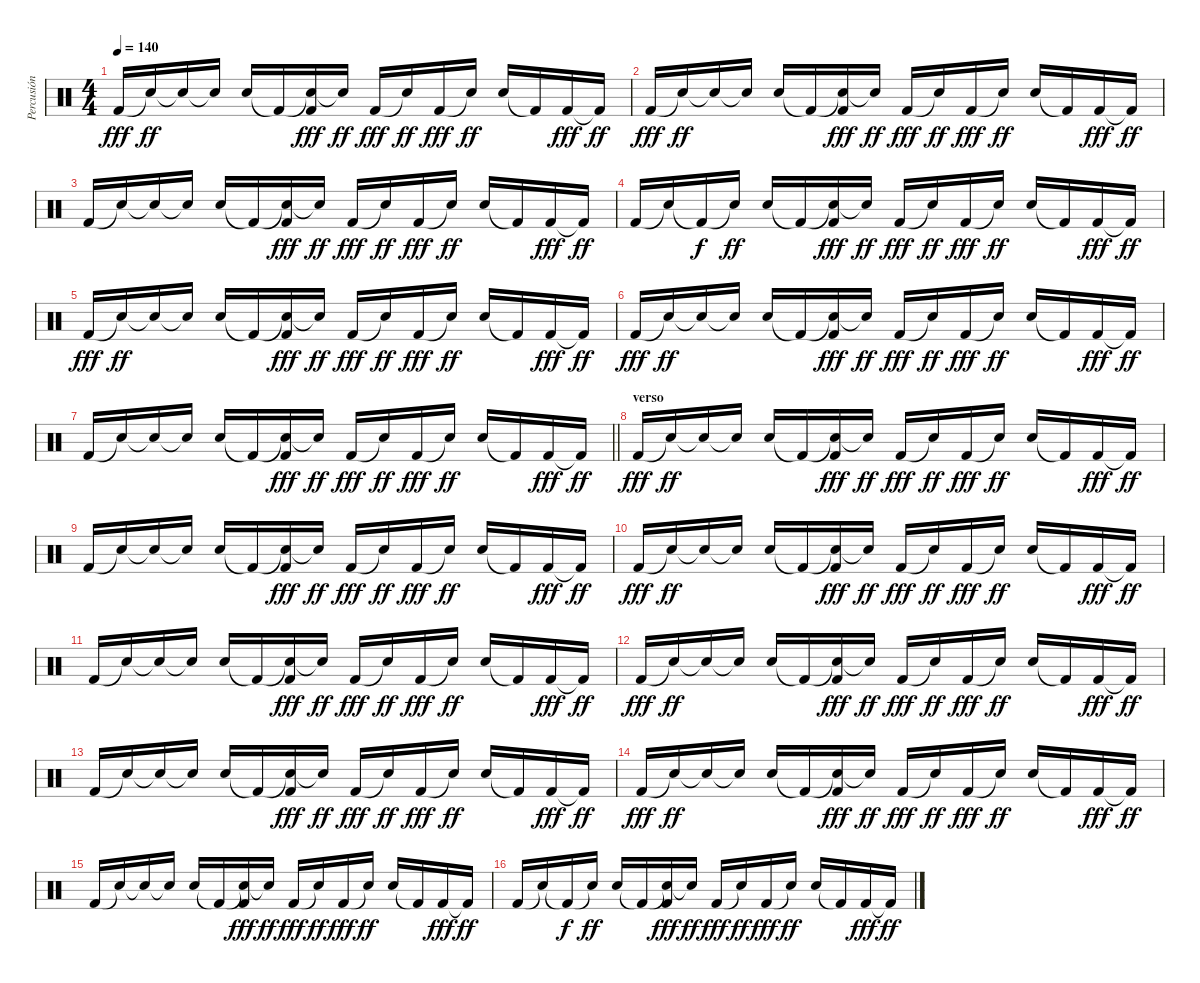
\track ("Percusión" "Percusión") {instrument percussion}
\staff {score}
\articulation defaults
\ts (4 4)
\tempo 140
\clef neutral
\ks c "Kick (hit) 2".16{dy fff} "Snare (hit)"{t}.16{dy ff} "Electric Snare (hit)"{t}.16 "Snare (hit)"{t}.16 "Electric Snare (hit)".16 "Kick (hit) 2"{t}.16
("Electric Snare (hit)"{t} "Kick (hit) 2").16{dy fff} "Snare (hit)"{t}.16{dy ff} "Kick (hit) 2".16{dy fff} "Snare (hit)"{t}.16{dy ff} "Kick (hit) 2".16{dy fff} "Snare (hit)"{t}.16{dy ff} "Electric Snare (hit)".16 "Kick (hit) 2"{t}.16 "Kick (hit) 2".16{dy fff} "Kick (hit) 2"{t}.16{dy ff} |
"Kick (hit) 2".16{dy fff} "Snare (hit)"{t}.16{dy ff} "Electric Snare (hit)"{t}.16 "Snare (hit)"{t}.16 "Electric Snare (hit)".16 "Kick (hit) 2"{t}.16 ("Electric Snare (hit)"{t} "Kick (hit) 2").16{dy fff} "Snare (hit)"{t}.16{dy ff} "Kick (hit) 2".16{dy fff} "Snare (hit)"{t}.16{dy ff} "Kick (hit) 2".16{dy fff} "Snare (hit)"{t}.16{dy ff} "Electric Snare (hit)".16 "Kick (hit) 2"{t}.16 "Kick (hit) 2".16{dy fff} "Kick (hit) 2"{t}.16{dy ff} |
"Kick (hit) 2".16 "Snare (hit)"{t}.16 "Electric Snare (hit)"{t}.16 "Snare (hit)"{t}.16 "Electric Snare (hit)".16 "Kick (hit) 2"{t}.16 ("Electric Snare (hit)"{t} "Kick (hit) 2").16{dy fff} "Snare (hit)"{t}.16{dy ff} "Kick (hit) 2".16{dy fff} "Snare (hit)"{t}.16{dy ff} "Kick (hit) 2".16{dy fff} "Snare (hit)"{t}.16{dy ff} "Electric Snare (hit)".16 "Kick (hit) 2"{t}.16 "Kick (hit) 2".16{dy fff} "Kick (hit) 2"{t}.16{dy ff} |
"Kick (hit) 2".16 "Snare (hit)"{t}.16 "Kick (hit) 2"{t}.16{dy f} "Snare (hit)"{t}.16{dy ff} "Electric Snare (hit)".16 "Kick (hit) 2"{t}.16 ("Electric Snare (hit)"{t} "Kick (hit) 2").16{dy fff} "Snare (hit)"{t}.16{dy ff} "Kick (hit) 2".16{dy fff} "Snare (hit)"{t}.16{dy ff} "Kick (hit) 2".16{dy fff} "Snare (hit)"{t}.16{dy ff} "Electric Snare (hit)".16 "Kick (hit) 2"{t}.16 "Kick (hit) 2".16{dy fff} "Kick (hit) 2"{t}.16{dy ff} |
"Kick (hit) 2".16{dy fff} "Snare (hit)"{t}.16{dy ff} "Electric Snare (hit)"{t}.16 "Snare (hit)"{t}.16 "Electric Snare (hit)".16 "Kick (hit) 2"{t}.16 ("Electric Snare (hit)"{t} "Kick (hit) 2").16{dy fff} "Snare (hit)"{t}.16{dy ff} "Kick (hit) 2".16{dy fff} "Snare (hit)"{t}.16{dy ff} "Kick (hit) 2".16{dy fff} "Snare (hit)"{t}.16{dy ff} "Electric Snare (hit)".16 "Kick (hit) 2"{t}.16 "Kick (hit) 2".16{dy fff} "Kick (hit) 2"{t}.16{dy ff} |
"Kick (hit) 2".16{dy fff} "Snare (hit)"{t}.16{dy ff} "Electric Snare (hit)"{t}.16 "Snare (hit)"{t}.16 "Electric Snare (hit)".16 "Kick (hit) 2"{t}.16 ("Electric Snare (hit)"{t} "Kick (hit) 2").16{dy fff} "Snare (hit)"{t}.16{dy ff} "Kick (hit) 2".16{dy fff} "Snare (hit)"{t}.16{dy ff} "Kick (hit) 2".16{dy fff} "Snare (hit)"{t}.16{dy ff} "Electric Snare (hit)".16 "Kick (hit) 2"{t}.16 "Kick (hit) 2".16{dy fff} "Kick (hit) 2"{t}.16{dy ff} |
\barLineRight lightlight "Kick (hit) 2".16 "Snare (hit)"{t}.16 "Electric Snare (hit)"{t}.16 "Snare (hit)"{t}.16 "Electric Snare (hit)".16 "Kick (hit) 2"{t}.16
("Electric Snare (hit)"{t} "Kick (hit) 2").16{dy fff} "Snare (hit)"{t}.16{dy ff} "Kick (hit) 2".16{dy fff} "Snare (hit)"{t}.16{dy ff} "Kick (hit) 2".16{dy fff} "Snare (hit)"{t}.16{dy ff} "Electric Snare (hit)".16 "Kick (hit) 2"{t}.16 "Kick (hit) 2".16{dy fff} "Kick (hit) 2"{t}.16{dy ff} |
\section ("" "verso")
"Kick (hit) 2".16{dy fff} "Snare (hit)"{t}.16{dy ff} "Electric Snare (hit)"{t}.16 "Snare (hit)"{t}.16 "Electric Snare (hit)".16 "Kick (hit) 2"{t}.16 ("Electric Snare (hit)"{t} "Kick (hit) 2").16{dy fff} "Snare (hit)"{t}.16{dy ff} "Kick (hit) 2".16{dy fff} "Snare (hit)"{t}.16{dy ff} "Kick (hit) 2".16{dy fff} "Snare (hit)"{t}.16{dy ff} "Electric Snare (hit)".16 "Kick (hit) 2"{t}.16 "Kick (hit) 2".16{dy fff} "Kick (hit) 2"{t}.16{dy ff} |
"Kick (hit) 2".16 "Snare (hit)"{t}.16 "Electric Snare (hit)"{t}.16 "Snare (hit)"{t}.16 "Electric Snare (hit)".16 "Kick (hit) 2"{t}.16 ("Electric Snare (hit)"{t} "Kick (hit) 2").16{dy fff} "Snare (hit)"{t}.16{dy ff} "Kick (hit) 2".16{dy fff} "Snare (hit)"{t}.16{dy ff} "Kick (hit) 2".16{dy fff} "Snare (hit)"{t}.16{dy ff} "Electric Snare (hit)".16 "Kick (hit) 2"{t}.16 "Kick (hit) 2".16{dy fff} "Kick (hit) 2"{t}.16{dy ff} |
"Kick (hit) 2".16{dy fff} "Snare (hit)"{t}.16{dy ff} "Electric Snare (hit)"{t}.16 "Snare (hit)"{t}.16 "Electric Snare (hit)".16 "Kick (hit) 2"{t}.16 ("Electric Snare (hit)"{t} "Kick (hit) 2").16{dy fff} "Snare (hit)"{t}.16{dy ff} "Kick (hit) 2".16{dy fff} "Snare (hit)"{t}.16{dy ff} "Kick (hit) 2".16{dy fff} "Snare (hit)"{t}.16{dy ff} "Electric Snare (hit)".16 "Kick (hit) 2"{t}.16 "Kick (hit) 2".16{dy fff} "Kick (hit) 2"{t}.16{dy ff} |
"Kick (hit) 2".16 "Snare (hit)"{t}.16 "Electric Snare (hit)"{t}.16 "Snare (hit)"{t}.16 "Electric Snare (hit)".16 "Kick (hit) 2"{t}.16 ("Electric Snare (hit)"{t} "Kick (hit) 2").16{dy fff} "Snare (hit)"{t}.16{dy ff} "Kick (hit) 2".16{dy fff} "Snare (hit)"{t}.16{dy ff} "Kick (hit) 2".16{dy fff} "Snare (hit)"{t}.16{dy ff} "Electric Snare (hit)".16 "Kick (hit) 2"{t}.16 "Kick (hit) 2".16{dy fff} "Kick (hit) 2"{t}.16{dy ff} |
"Kick (hit) 2".16{dy fff} "Snare (hit)"{t}.16{dy ff} "Electric Snare (hit)"{t}.16 "Snare (hit)"{t}.16 "Electric Snare (hit)".16 "Kick (hit) 2"{t}.16 ("Electric Snare (hit)"{t} "Kick (hit) 2").16{dy fff} "Snare (hit)"{t}.16{dy ff} "Kick (hit) 2".16{dy fff} "Snare (hit)"{t}.16{dy ff} "Kick (hit) 2".16{dy fff} "Snare (hit)"{t}.16{dy ff} "Electric Snare (hit)".16 "Kick (hit) 2"{t}.16 "Kick (hit) 2".16{dy fff} "Kick (hit) 2"{t}.16{dy ff} |
"Kick (hit) 2".16 "Snare (hit)"{t}.16 "Electric Snare (hit)"{t}.16 "Snare (hit)"{t}.16 "Electric Snare (hit)".16 "Kick (hit) 2"{t}.16 ("Electric Snare (hit)"{t} "Kick (hit) 2").16{dy fff} "Snare (hit)"{t}.16{dy ff} "Kick (hit) 2".16{dy fff} "Snare (hit)"{t}.16{dy ff} "Kick (hit) 2".16{dy fff} "Snare (hit)"{t}.16{dy ff} "Electric Snare (hit)".16 "Kick (hit) 2"{t}.16 "Kick (hit) 2".16{dy fff} "Kick (hit) 2"{t}.16{dy ff} |
"Kick (hit) 2".16{dy fff} "Snare (hit)"{t}.16{dy ff} "Electric Snare (hit)"{t}.16 "Snare (hit)"{t}.16 "Electric Snare (hit)".16 "Kick (hit) 2"{t}.16 ("Electric Snare (hit)"{t} "Kick (hit) 2").16{dy fff} "Snare (hit)"{t}.16{dy ff} "Kick (hit) 2".16{dy fff} "Snare (hit)"{t}.16{dy ff} "Kick (hit) 2".16{dy fff} "Snare (hit)"{t}.16{dy ff} "Electric Snare (hit)".16 "Kick (hit) 2"{t}.16 "Kick (hit) 2".16{dy fff} "Kick (hit) 2"{t}.16{dy ff} |
"Kick (hit) 2".16 "Snare (hit)"{t}.16 "Electric Snare (hit)"{t}.16 "Snare (hit)"{t}.16 "Electric Snare (hit)".16 "Kick (hit) 2"{t}.16 ("Electric Snare (hit)"{t} "Kick (hit) 2").16{dy fff} "Snare (hit)"{t}.16{dy ff} "Kick (hit) 2".16{dy fff} "Snare (hit)"{t}.16{dy ff} "Kick (hit) 2".16{dy fff} "Snare (hit)"{t}.16{dy ff} "Electric Snare (hit)".16 "Kick (hit) 2"{t}.16 "Kick (hit) 2".16{dy fff} "Kick (hit) 2"{t}.16{dy ff} |
"Kick (hit) 2".16 "Snare (hit)"{t}.16 "Kick (hit) 2"{t}.16{dy f} "Snare (hit)"{t}.16{dy ff} "Electric Snare (hit)".16 "Kick (hit) 2"{t}.16 ("Electric Snare (hit)"{t} "Kick (hit) 2").16{dy fff} "Snare (hit)"{t}.16{dy ff} "Kick (hit) 2".16{dy fff} "Snare (hit)"{t}.16{dy ff} "Kick (hit) 2".16{dy fff} "Snare (hit)"{t}.16{dy ff} "Electric Snare (hit)".16 "Kick (hit) 2"{t}.16 "Kick (hit) 2".16{dy fff} "Kick (hit) 2"{t}.16{dy ff}
